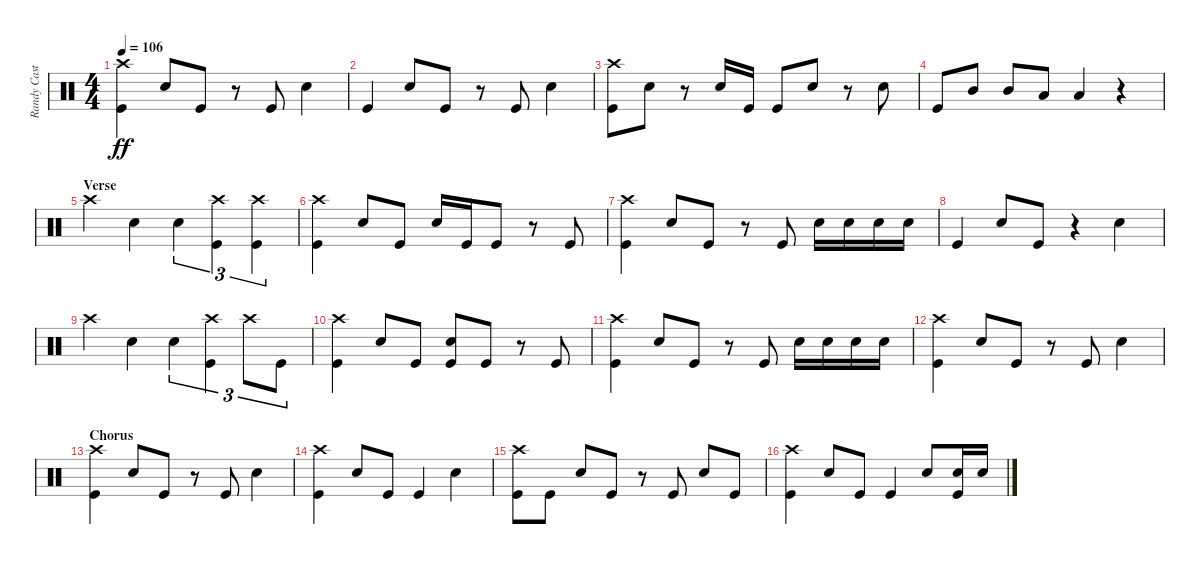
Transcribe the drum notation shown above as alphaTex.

\track ("Randy Castillo" "Randy Cast") {instrument percussion}
\staff {score}
\articulation defaults
\ts (4 4)
\tempo 106
\clef neutral
\ks c
("Crash high (hit)" "Kick (hit)").4{dy ff} "Snare (hit) 2".8 "Kick (hit)".8 r.8 "Kick (hit)".8 "Snare (hit) 2".4 |
"Kick (hit)".4 "Snare (hit) 2".8 "Kick (hit)".8 r.8 "Kick (hit)".8 "Snare (hit) 2".4 |
("Crash high (hit)" "Kick (hit)").8 "Snare (hit) 2".8 r.8 "Snare (hit) 2".16 "Kick (hit)".16 "Kick (hit)".8 "Snare (hit) 2".8 r.8 "Snare (hit) 2".8 |
"Kick (hit)".8 "Mid Tom (hit)".8 "Mid Tom (hit)".8 "Low Tom (hit)".8 "Low Tom (hit)".4 r.4 |
\section ("" "Verse")
"Crash high (hit)".4 "Snare (hit) 2".4 "Snare (hit) 2".4{tu (3 2)} ("Crash high (hit)" "Kick (hit)").4{tu (3 2)} ("Crash high (hit)" "Kick (hit)").4{tu (3 2)} |
("Crash high (hit)" "Kick (hit)").4 "Snare (hit) 2".8 "Kick (hit)".8 "Snare (hit) 2".16 "Kick (hit)".16 "Kick (hit)".8 r.8 "Kick (hit)".8 |
("Crash high (hit)" "Kick (hit)").4 "Snare (hit) 2".8 "Kick (hit)".8 r.8 "Kick (hit)".8 "Snare (hit) 2".16 "Snare (hit) 2".16 "Snare (hit) 2".16 "Snare (hit) 2".16 |
"Kick (hit)".4 "Snare (hit) 2".8 "Kick (hit)".8 r.4 "Snare (hit) 2".4 |
"Crash high (hit)".4 "Snare (hit) 2".4 "Snare (hit) 2".4{tu (3 2)} ("Crash high (hit)" "Kick (hit)").4{tu (3 2)} "Crash high (hit)".8{tu (3 2)} "Kick (hit)".8{tu (3 2)} |
("Crash high (hit)" "Kick (hit)").4 "Snare (hit) 2".8 "Kick (hit)".8 ("Snare (hit) 2" "Kick (hit)").8 "Kick (hit)".8 r.8 "Kick (hit)".8 |
("Crash high (hit)" "Kick (hit)").4 "Snare (hit) 2".8 "Kick (hit)".8 r.8 "Kick (hit)".8 "Snare (hit) 2".16 "Snare (hit) 2".16 "Snare (hit) 2".16 "Snare (hit) 2".16 |
("Crash high (hit)" "Kick (hit)").4 "Snare (hit) 2".8 "Kick (hit)".8 r.8 "Kick (hit)".8 "Snare (hit) 2".4 |
\section ("" "Chorus")
("Crash high (hit)" "Kick (hit)").4 "Snare (hit) 2".8 "Kick (hit)".8 r.8 "Kick (hit)".8 "Snare (hit) 2".4 |
("Crash high (hit)" "Kick (hit)").4 "Snare (hit) 2".8 "Kick (hit)".8 "Kick (hit)".4 "Snare (hit) 2".4 |
("Crash high (hit)" "Kick (hit)").8 "Kick (hit)".8 "Snare (hit) 2".8 "Kick (hit)".8 r.8 "Kick (hit)".8 "Snare (hit) 2".8 "Kick (hit)".8 |
("Crash high (hit)" "Kick (hit)").4 "Snare (hit) 2".8 "Kick (hit)".8 "Kick (hit)".4 "Snare (hit) 2".8 ("Snare (hit) 2" "Kick (hit)").16 "Snare (hit) 2".16
